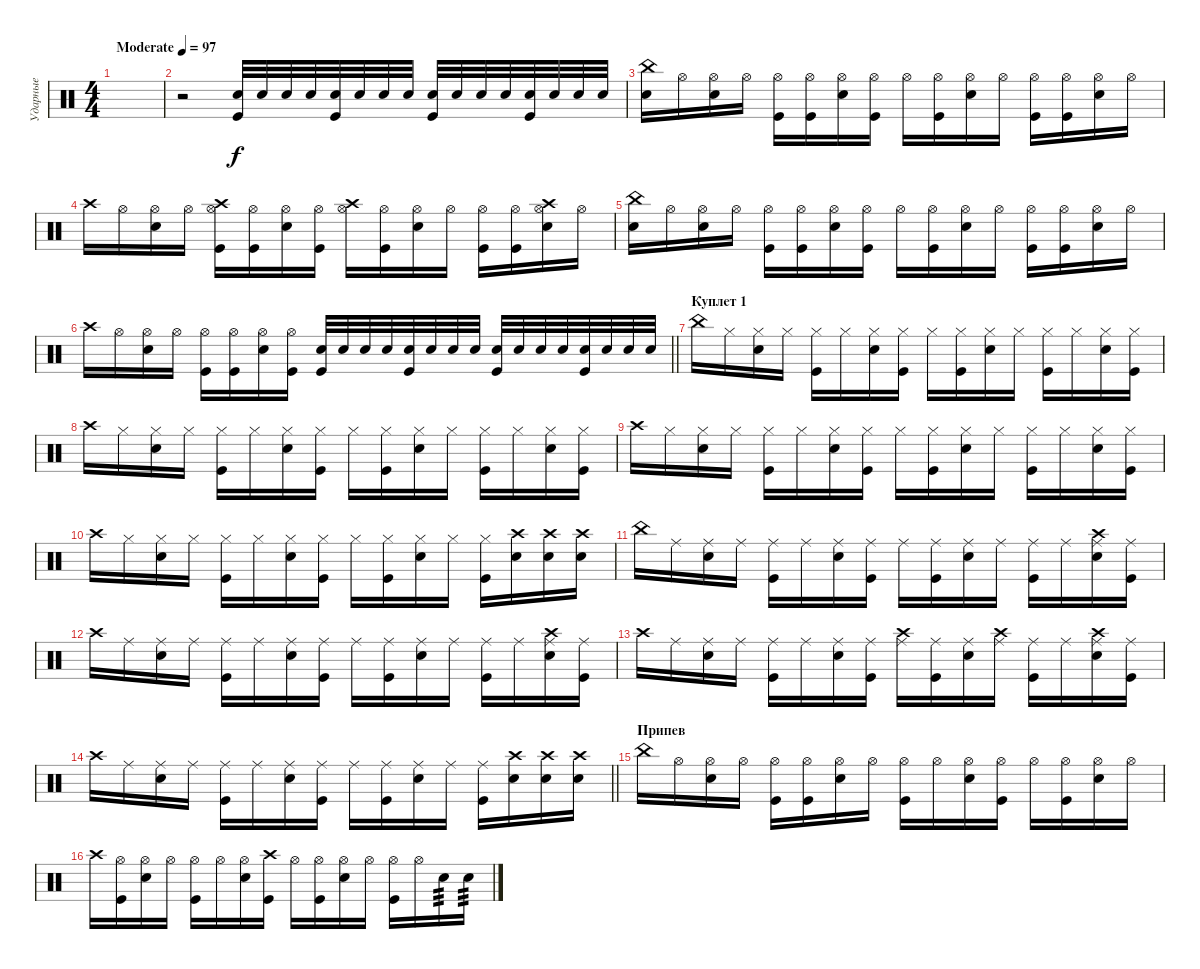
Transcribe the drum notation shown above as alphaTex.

\track ("Ударные" "Ударные") {instrument percussion}
\staff {score}
\articulation defaults
\ts (4 4)
\tempo (97 "Moderate")
\clef neutral
\ks c
|
r.2 ("Electric Snare (hit)" "Kick (hit)").32 "Electric Snare (hit)".32 "Electric Snare (hit)".32 "Electric Snare (hit)".32 ("Electric Snare (hit)" "Kick (hit)").32 "Electric Snare (hit)".32 "Electric Snare (hit)".32 "Electric Snare (hit)".32 ("Electric Snare (hit)" "Kick (hit)").32 "Electric Snare (hit)".32 "Electric Snare (hit)".32 "Electric Snare (hit)".32 ("Electric Snare (hit)" "Kick (hit)").32 "Electric Snare (hit)".32 "Electric Snare (hit)".32 "Electric Snare (hit)".32 |
("China (hit)" "Snare (hit) 2").16 "Hi-Hat (open)".16 ("Hi-Hat (open)" "Electric Snare (hit)").16 "Hi-Hat (open)".16 ("Hi-Hat (open)" "Kick (hit)").16 ("Hi-Hat (open)" "Kick (hit)").16 ("Hi-Hat (open)" "Electric Snare (hit)").16 ("Hi-Hat (open)" "Kick (hit)").16 "Hi-Hat (open)".16 ("Hi-Hat (open)" "Kick (hit)").16 ("Hi-Hat (open)" "Electric Snare (hit)").16 "Hi-Hat (open)".16 ("Hi-Hat (open)" "Kick (hit)").16 ("Hi-Hat (open)" "Kick (hit)").16 ("Hi-Hat (open)" "Electric Snare (hit)").16 "Hi-Hat (open)".16 |
"Crash high (hit)".16 "Hi-Hat (open)".16 ("Hi-Hat (open)" "Electric Snare (hit)").16 "Hi-Hat (open)".16 ("Crash high (hit)" "Hi-Hat (open)" "Kick (hit)").16 ("Hi-Hat (open)" "Kick (hit)").16 ("Hi-Hat (open)" "Electric Snare (hit)").16 ("Hi-Hat (open)" "Kick (hit)").16 ("Crash high (hit)" "Hi-Hat (open)").16 ("Hi-Hat (open)" "Kick (hit)").16 ("Hi-Hat (open)" "Electric Snare (hit)").16 "Hi-Hat (open)".16 ("Hi-Hat (open)" "Kick (hit)").16 ("Hi-Hat (open)" "Kick (hit)").16 ("Crash high (hit)" "Hi-Hat (open)" "Electric Snare (hit)").16 "Hi-Hat (open)".16 |
("China (hit)" "Snare (hit) 2").16 "Hi-Hat (open)".16 ("Hi-Hat (open)" "Electric Snare (hit)").16 "Hi-Hat (open)".16 ("Hi-Hat (open)" "Kick (hit)").16 ("Hi-Hat (open)" "Kick (hit)").16 ("Hi-Hat (open)" "Electric Snare (hit)").16 ("Hi-Hat (open)" "Kick (hit)").16 "Hi-Hat (open)".16 ("Hi-Hat (open)" "Kick (hit)").16 ("Hi-Hat (open)" "Electric Snare (hit)").16 "Hi-Hat (open)".16 ("Hi-Hat (open)" "Kick (hit)").16 ("Hi-Hat (open)" "Kick (hit)").16 ("Hi-Hat (open)" "Electric Snare (hit)").16 "Hi-Hat (open)".16 |
\barLineRight lightlight "Crash high (hit)".16 "Hi-Hat (open)".16
("Hi-Hat (open)" "Electric Snare (hit)").16 "Hi-Hat (open)".16 ("Hi-Hat (open)" "Kick (hit)").16 ("Hi-Hat (open)" "Kick (hit)").16 ("Hi-Hat (open)" "Electric Snare (hit)").16 ("Hi-Hat (open)" "Kick (hit)").16 ("Electric Snare (hit)" "Kick (hit)").32 "Electric Snare (hit)".32 "Electric Snare (hit)".32 "Electric Snare (hit)".32 ("Electric Snare (hit)" "Kick (hit)").32 "Electric Snare (hit)".32 "Electric Snare (hit)".32 "Electric Snare (hit)".32 ("Electric Snare (hit)" "Kick (hit)").32 "Electric Snare (hit)".32 "Electric Snare (hit)".32 "Electric Snare (hit)".32 ("Electric Snare (hit)" "Kick (hit)").32 "Electric Snare (hit)".32 "Electric Snare (hit)".32 "Electric Snare (hit)".32 |
\section ("" "Куплет 1")
"China (hit)".16 "Hi-Hat (closed)".16 ("Hi-Hat (closed)" "Electric Snare (hit)").16 "Hi-Hat (closed)".16 ("Hi-Hat (closed)" "Kick (hit)").16 "Hi-Hat (closed)".16 ("Hi-Hat (closed)" "Electric Snare (hit)").16 ("Hi-Hat (closed)" "Kick (hit)").16 "Hi-Hat (closed)".16 ("Hi-Hat (closed)" "Kick (hit)").16 ("Hi-Hat (closed)" "Electric Snare (hit)").16 "Hi-Hat (closed)".16 ("Hi-Hat (closed)" "Kick (hit)").16 "Hi-Hat (closed)".16 ("Hi-Hat (closed)" "Electric Snare (hit)").16 ("Hi-Hat (closed)" "Kick (hit)").16 |
"Crash high (hit)".16 "Hi-Hat (closed)".16 ("Hi-Hat (closed)" "Electric Snare (hit)").16 "Hi-Hat (closed)".16 ("Hi-Hat (closed)" "Kick (hit)").16 "Hi-Hat (closed)".16 ("Hi-Hat (closed)" "Electric Snare (hit)").16 ("Hi-Hat (closed)" "Kick (hit)").16 "Hi-Hat (closed)".16 ("Hi-Hat (closed)" "Kick (hit)").16 ("Hi-Hat (closed)" "Electric Snare (hit)").16 "Hi-Hat (closed)".16 ("Hi-Hat (closed)" "Kick (hit)").16 "Hi-Hat (closed)".16 ("Hi-Hat (closed)" "Electric Snare (hit)").16 ("Hi-Hat (closed)" "Kick (hit)").16 |
"Crash high (hit)".16 "Hi-Hat (closed)".16 ("Hi-Hat (closed)" "Electric Snare (hit)").16 "Hi-Hat (closed)".16 ("Hi-Hat (closed)" "Kick (hit)").16 "Hi-Hat (closed)".16 ("Hi-Hat (closed)" "Electric Snare (hit)").16 ("Hi-Hat (closed)" "Kick (hit)").16 "Hi-Hat (closed)".16 ("Hi-Hat (closed)" "Kick (hit)").16 ("Hi-Hat (closed)" "Electric Snare (hit)").16 "Hi-Hat (closed)".16 ("Hi-Hat (closed)" "Kick (hit)").16 "Hi-Hat (closed)".16 ("Hi-Hat (closed)" "Electric Snare (hit)").16 ("Hi-Hat (closed)" "Kick (hit)").16 |
"Crash high (hit)".16 "Hi-Hat (closed)".16 ("Hi-Hat (closed)" "Electric Snare (hit)").16 "Hi-Hat (closed)".16 ("Hi-Hat (closed)" "Kick (hit)").16 "Hi-Hat (closed)".16 ("Hi-Hat (closed)" "Electric Snare (hit)").16 ("Hi-Hat (closed)" "Kick (hit)").16 "Hi-Hat (closed)".16 ("Hi-Hat (closed)" "Kick (hit)").16 ("Hi-Hat (closed)" "Electric Snare (hit)").16 "Hi-Hat (closed)".16 ("Hi-Hat (closed)" "Kick (hit)").16 ("Crash high (hit)" "Snare (hit) 2").16 ("Crash high (hit)" "Snare (hit) 2").16 ("Crash high (hit)" "Snare (hit) 2").16 |
"China (hit)".16 "Ride (middle)".16 ("Ride (middle)" "Electric Snare (hit)").16 "Ride (middle)".16 ("Ride (middle)" "Kick (hit)").16 "Ride (middle)".16 ("Ride (middle)" "Electric Snare (hit)").16 ("Ride (middle)" "Kick (hit)").16 "Ride (middle)".16 ("Ride (middle)" "Kick (hit)").16 ("Ride (middle)" "Electric Snare (hit)").16 "Ride (middle)".16 ("Ride (middle)" "Kick (hit)").16 "Ride (middle)".16 ("Ride (middle)" "Crash high (hit)" "Electric Snare (hit)").16 ("Ride (middle)" "Kick (hit)").16 |
"Crash high (hit)".16 "Ride (middle)".16 ("Ride (middle)" "Electric Snare (hit)").16 "Ride (middle)".16 ("Ride (middle)" "Kick (hit)").16 "Ride (middle)".16 ("Ride (middle)" "Electric Snare (hit)").16 ("Ride (middle)" "Kick (hit)").16 "Ride (middle)".16 ("Ride (middle)" "Kick (hit)").16 ("Ride (middle)" "Electric Snare (hit)").16 "Ride (middle)".16 ("Ride (middle)" "Kick (hit)").16 "Ride (middle)".16 ("Ride (middle)" "Electric Snare (hit)" "Crash high (hit)").16 ("Ride (middle)" "Kick (hit)").16 |
"Crash high (hit)".16 "Ride (middle)".16 ("Ride (middle)" "Electric Snare (hit)").16 "Ride (middle)".16 ("Ride (middle)" "Kick (hit)").16 "Ride (middle)".16 ("Ride (middle)" "Electric Snare (hit)").16 ("Ride (middle)" "Kick (hit)").16 ("Ride (middle)" "Crash high (hit)").16 ("Ride (middle)" "Kick (hit)").16 ("Ride (middle)" "Electric Snare (hit)").16 ("Crash high (hit)" "Ride (middle)").16 ("Ride (middle)" "Kick (hit)").16 "Ride (middle)".16 ("Ride (middle)" "Crash high (hit)" "Electric Snare (hit)").16 ("Ride (middle)" "Kick (hit)").16 |
\barLineRight lightlight "Crash high (hit)".16 "Ride (middle)".16
("Ride (middle)" "Electric Snare (hit)").16 "Ride (middle)".16 ("Ride (middle)" "Kick (hit)").16 "Ride (middle)".16 ("Ride (middle)" "Electric Snare (hit)").16 ("Ride (middle)" "Kick (hit)").16 "Ride (middle)".16 ("Ride (middle)" "Kick (hit)").16 ("Ride (middle)" "Electric Snare (hit)").16 "Ride (middle)".16 ("Ride (middle)" "Kick (hit)").16 ("Crash high (hit)" "Snare (hit) 2").16 ("Crash high (hit)" "Snare (hit) 2").16 ("Crash high (hit)" "Snare (hit) 2").16 |
\section ("" "Припев")
"China (hit)".16 "Hi-Hat (open)".16 ("Hi-Hat (open)" "Electric Snare (hit)").16 "Hi-Hat (open)".16 ("Hi-Hat (open)" "Kick (hit)").16 ("Hi-Hat (open)" "Kick (hit)").16 ("Hi-Hat (open)" "Electric Snare (hit)").16 "Hi-Hat (open)".16 ("Hi-Hat (open)" "Kick (hit)").16 "Hi-Hat (open)".16 ("Hi-Hat (open)" "Electric Snare (hit)").16 ("Hi-Hat (open)" "Kick (hit)").16 "Hi-Hat (open)".16 ("Hi-Hat (open)" "Kick (hit)").16 ("Hi-Hat (open)" "Electric Snare (hit)").16 "Hi-Hat (open)".16 |
"Crash high (hit)".16 ("Hi-Hat (open)" "Kick (hit)").16 ("Hi-Hat (open)" "Electric Snare (hit)").16 "Hi-Hat (open)".16 ("Hi-Hat (open)" "Kick (hit)").16 "Hi-Hat (open)".16 ("Hi-Hat (open)" "Electric Snare (hit)").16 ("Crash high (hit)" "Kick (hit)").16 "Hi-Hat (open)".16 ("Hi-Hat (open)" "Kick (hit)").16 ("Hi-Hat (open)" "Electric Snare (hit)").16 "Hi-Hat (open)".16 ("Hi-Hat (open)" "Kick (hit)").16 "Hi-Hat (open)".16 "Electric Snare (hit)".16{tp 3} "Electric Snare (hit)".16{tp 3}
